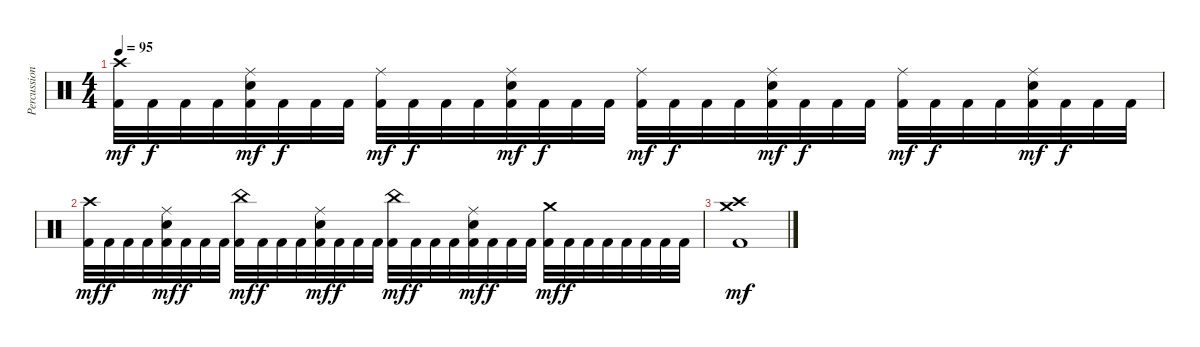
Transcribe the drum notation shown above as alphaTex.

\track ("Percussion" "Percussion") {instrument percussion}
\staff {score}
\articulation defaults
\ts (4 4)
\tempo 95
\clef neutral
\ks c
("Crash high (hit)" "Kick (hit) 2").32{dy mf} "Kick (hit) 2".32{dy f} "Kick (hit) 2".32 "Kick (hit) 2".32 ("Ride (middle)" "Electric Snare (hit)" "Kick (hit) 2").32{dy mf} "Kick (hit) 2".32{dy f} "Kick (hit) 2".32 "Kick (hit) 2".32 ("Ride (middle)" "Kick (hit) 2").32{dy mf} "Kick (hit) 2".32{dy f} "Kick (hit) 2".32 "Kick (hit) 2".32 ("Ride (middle)" "Electric Snare (hit)" "Kick (hit) 2").32{dy mf} "Kick (hit) 2".32{dy f} "Kick (hit) 2".32 "Kick (hit) 2".32 ("Ride (middle)" "Kick (hit) 2").32{dy mf} "Kick (hit) 2".32{dy f} "Kick (hit) 2".32 "Kick (hit) 2".32 ("Ride (middle)" "Electric Snare (hit)" "Kick (hit) 2").32{dy mf} "Kick (hit) 2".32{dy f} "Kick (hit) 2".32 "Kick (hit) 2".32 ("Ride (middle)" "Kick (hit) 2").32{dy mf} "Kick (hit) 2".32{dy f} "Kick (hit) 2".32 "Kick (hit) 2".32 ("Ride (middle)" "Electric Snare (hit)" "Kick (hit) 2").32{dy mf} "Kick (hit) 2".32{dy f} "Kick (hit) 2".32 "Kick (hit) 2".32 |
("Crash high (hit)" "Kick (hit) 2").32{dy mf} "Kick (hit) 2".32{dy f} "Kick (hit) 2".32 "Kick (hit) 2".32 ("Ride (middle)" "Electric Snare (hit)" "Kick (hit) 2").32{dy mf} "Kick (hit) 2".32{dy f} "Kick (hit) 2".32 "Kick (hit) 2".32 ("China (hit)" "Kick (hit) 2").32{dy mf} "Kick (hit) 2".32{dy f} "Kick (hit) 2".32 "Kick (hit) 2".32 ("Ride (middle)" "Electric Snare (hit)" "Kick (hit) 2").32{dy mf} "Kick (hit) 2".32{dy f} "Kick (hit) 2".32 "Kick (hit) 2".32 ("China (hit)" "Kick (hit) 2").32{dy mf} "Kick (hit) 2".32{dy f} "Kick (hit) 2".32 "Kick (hit) 2".32 ("Ride (middle)" "Electric Snare (hit)" "Kick (hit) 2").32{dy mf} "Kick (hit) 2".32{dy f} "Kick (hit) 2".32 "Kick (hit) 2".32 ("Crash medium (hit)" "Kick (hit) 2").32{dy mf} "Kick (hit) 2".32{dy f} "Kick (hit) 2".32 "Kick (hit) 2".32 "Kick (hit) 2".32 "Kick (hit) 2".32 "Kick (hit) 2".32 "Kick (hit) 2".32 |
("Crash medium (hit)" "Crash high (hit)" "Kick (hit) 2").1{dy mf}
